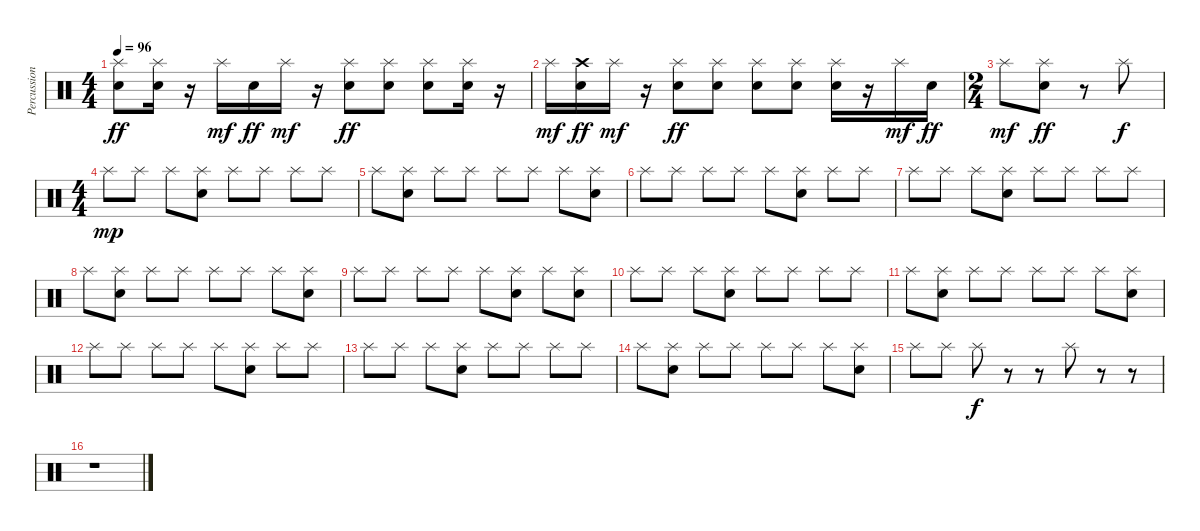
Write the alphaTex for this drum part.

\track ("Percussions" "Percussion") {instrument percussion}
\staff {score}
\articulation defaults
\ts (4 4)
\tempo 96
\clef neutral
\ks c
("Splash (hit)" "Electric Snare (hit)").8{dy ff} ("Splash (hit)" "Electric Snare (hit)").16 r.16 "Splash (hit)".16{dy mf} "Electric Snare (hit)".16{dy ff} "Splash (hit)".16{dy mf} r.16 ("Splash (hit)" "Electric Snare (hit)").8{dy ff} ("Splash (hit)" "Electric Snare (hit)").8 ("Splash (hit)" "Electric Snare (hit)").8 ("Splash (hit)" "Electric Snare (hit)").16 r.16 |
"Splash (hit)".16{dy mf} ("Crash high (hit)" "Electric Snare (hit)").16{dy ff} "Splash (hit)".16{dy mf} r.16 ("Splash (hit)" "Electric Snare (hit)").8{dy ff} ("Splash (hit)" "Electric Snare (hit)").8 ("Splash (hit)" "Electric Snare (hit)").8 ("Splash (hit)" "Electric Snare (hit)").8 ("Splash (hit)" "Electric Snare (hit)").16 r.16 "Splash (hit)".16{dy mf} "Electric Snare (hit)".16{dy ff} |
\ts (2 4)
"Splash (hit)".8{dy mf} ("Splash (hit)" "Electric Snare (hit)").8{dy ff} r.8 "Splash (hit)".8{dy f} |
\ts (4 4)
"Splash (hit)".8{dy mp} "Splash (hit)".8 "Splash (hit)".8 ("Splash (hit)" "Electric Snare (hit)").8 "Splash (hit)".8 "Splash (hit)".8 "Splash (hit)".8 "Splash (hit)".8 |
"Splash (hit)".8 ("Splash (hit)" "Electric Snare (hit)").8 "Splash (hit)".8 "Splash (hit)".8 "Splash (hit)".8 "Splash (hit)".8 "Splash (hit)".8 ("Splash (hit)" "Electric Snare (hit)").8 |
"Splash (hit)".8 "Splash (hit)".8 "Splash (hit)".8 "Splash (hit)".8 "Splash (hit)".8 ("Splash (hit)" "Electric Snare (hit)").8 "Splash (hit)".8 "Splash (hit)".8 |
"Splash (hit)".8 "Splash (hit)".8 "Splash (hit)".8 ("Splash (hit)" "Electric Snare (hit)").8 "Splash (hit)".8 "Splash (hit)".8 "Splash (hit)".8 "Splash (hit)".8 |
"Splash (hit)".8 ("Splash (hit)" "Electric Snare (hit)").8 "Splash (hit)".8 "Splash (hit)".8 "Splash (hit)".8 "Splash (hit)".8 "Splash (hit)".8 ("Splash (hit)" "Electric Snare (hit)").8 |
"Splash (hit)".8 "Splash (hit)".8 "Splash (hit)".8 "Splash (hit)".8 "Splash (hit)".8 ("Splash (hit)" "Electric Snare (hit)").8 "Splash (hit)".8 ("Splash (hit)" "Electric Snare (hit)").8 |
"Splash (hit)".8 "Splash (hit)".8 "Splash (hit)".8 ("Splash (hit)" "Electric Snare (hit)").8 "Splash (hit)".8 "Splash (hit)".8 "Splash (hit)".8 "Splash (hit)".8 |
"Splash (hit)".8 ("Splash (hit)" "Electric Snare (hit)").8 "Splash (hit)".8 "Splash (hit)".8 "Splash (hit)".8 "Splash (hit)".8 "Splash (hit)".8 ("Splash (hit)" "Electric Snare (hit)").8 |
"Splash (hit)".8 "Splash (hit)".8 "Splash (hit)".8 "Splash (hit)".8 "Splash (hit)".8 ("Splash (hit)" "Electric Snare (hit)").8 "Splash (hit)".8 "Splash (hit)".8 |
"Splash (hit)".8 "Splash (hit)".8 "Splash (hit)".8 ("Splash (hit)" "Electric Snare (hit)").8 "Splash (hit)".8 "Splash (hit)".8 "Splash (hit)".8 "Splash (hit)".8 |
"Splash (hit)".8 ("Splash (hit)" "Electric Snare (hit)").8 "Splash (hit)".8 "Splash (hit)".8 "Splash (hit)".8 "Splash (hit)".8 "Splash (hit)".8 ("Splash (hit)" "Electric Snare (hit)").8 |
"Splash (hit)".8 "Splash (hit)".8 "Splash (hit)".8{dy f} r.8 r.8 "Splash (hit)".8 r.8 r.8 |
r.1
